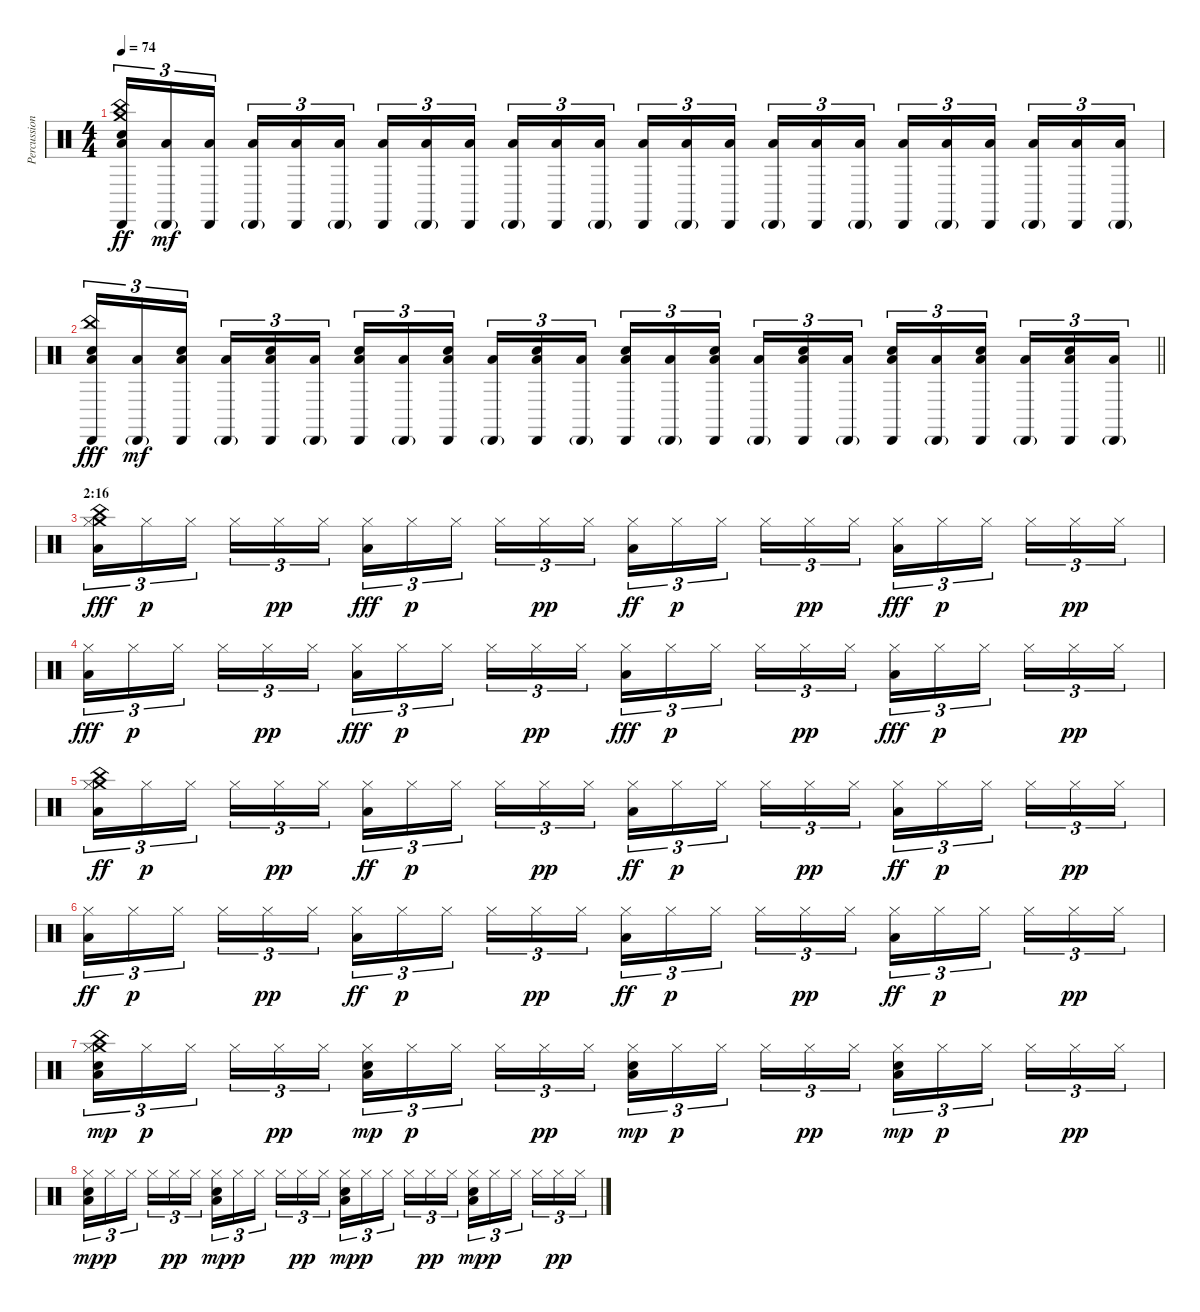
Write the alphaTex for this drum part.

\track ("Percussion" "Percussion") {instrument percussion}
\staff {score}
\articulation defaults
\ts (4 4)
\tempo 74
\clef neutral
\ks c
("China (hit)" "Cabasa (hit)" "Snare (hit) 2" "Low Floor Tom (hit)" "Crash medium (hit)").16{tu (3 2) dy ff} ("Cabasa (hit)"{g} "Low Floor Tom (hit)").16{tu (3 2) dy mf} ("Cabasa (hit)" "Low Floor Tom (hit)").16{tu (3 2)} ("Cabasa (hit)"{g} "Low Floor Tom (hit)").16{tu (3 2)} ("Cabasa (hit)" "Low Floor Tom (hit)").16{tu (3 2)} ("Cabasa (hit)"{g} "Low Floor Tom (hit)").16{tu (3 2)} ("Cabasa (hit)" "Low Floor Tom (hit)").16{tu (3 2)} ("Cabasa (hit)"{g} "Low Floor Tom (hit)").16{tu (3 2)} ("Cabasa (hit)" "Low Floor Tom (hit)").16{tu (3 2)} ("Cabasa (hit)"{g} "Low Floor Tom (hit)").16{tu (3 2)} ("Cabasa (hit)" "Low Floor Tom (hit)").16{tu (3 2)} ("Cabasa (hit)"{g} "Low Floor Tom (hit)").16{tu (3 2)} ("Cabasa (hit)" "Low Floor Tom (hit)").16{tu (3 2)} ("Cabasa (hit)"{g} "Low Floor Tom (hit)").16{tu (3 2)} ("Cabasa (hit)" "Low Floor Tom (hit)").16{tu (3 2)} ("Cabasa (hit)"{g} "Low Floor Tom (hit)").16{tu (3 2)} ("Cabasa (hit)" "Low Floor Tom (hit)").16{tu (3 2)} ("Cabasa (hit)"{g} "Low Floor Tom (hit)").16{tu (3 2)} ("Cabasa (hit)" "Low Floor Tom (hit)").16{tu (3 2)} ("Cabasa (hit)"{g} "Low Floor Tom (hit)").16{tu (3 2)} ("Cabasa (hit)" "Low Floor Tom (hit)").16{tu (3 2)} ("Cabasa (hit)"{g} "Low Floor Tom (hit)").16{tu (3 2)} ("Cabasa (hit)" "Low Floor Tom (hit)").16{tu (3 2)} ("Cabasa (hit)"{g} "Low Floor Tom (hit)").16{tu (3 2)} |
\barLineRight lightlight
("Cabasa (hit)" "China (hit)" "Snare (hit) 2" "Low Floor Tom (hit)").16{tu (3 2) dy fff} ("Cabasa (hit)"{g} "Low Floor Tom (hit)").16{tu (3 2) dy mf} ("Cabasa (hit)" "Snare (hit) 2" "Low Floor Tom (hit)").16{tu (3 2)} ("Cabasa (hit)"{g} "Low Floor Tom (hit)").16{tu (3 2)} ("Cabasa (hit)" "Snare (hit) 2" "Low Floor Tom (hit)").16{tu (3 2)} ("Cabasa (hit)"{g} "Low Floor Tom (hit)").16{tu (3 2)} ("Cabasa (hit)" "Snare (hit) 2" "Low Floor Tom (hit)").16{tu (3 2)} ("Cabasa (hit)"{g} "Low Floor Tom (hit)").16{tu (3 2)} ("Cabasa (hit)" "Snare (hit) 2" "Low Floor Tom (hit)").16{tu (3 2)} ("Cabasa (hit)"{g} "Low Floor Tom (hit)").16{tu (3 2)} ("Cabasa (hit)" "Snare (hit) 2" "Low Floor Tom (hit)").16{tu (3 2)} ("Cabasa (hit)"{g} "Low Floor Tom (hit)").16{tu (3 2)} ("Cabasa (hit)" "Snare (hit) 2" "Low Floor Tom (hit)").16{tu (3 2)} ("Cabasa (hit)"{g} "Low Floor Tom (hit)").16{tu (3 2)} ("Cabasa (hit)" "Snare (hit) 2" "Low Floor Tom (hit)").16{tu (3 2)} ("Cabasa (hit)"{g} "Low Floor Tom (hit)").16{tu (3 2)} ("Cabasa (hit)" "Snare (hit) 2" "Low Floor Tom (hit)").16{tu (3 2)} ("Cabasa (hit)"{g} "Low Floor Tom (hit)").16{tu (3 2)} ("Cabasa (hit)" "Snare (hit) 2" "Low Floor Tom (hit)").16{tu (3 2)} ("Cabasa (hit)"{g} "Low Floor Tom (hit)").16{tu (3 2)} ("Cabasa (hit)" "Snare (hit) 2" "Low Floor Tom (hit)").16{tu (3 2)} ("Cabasa (hit)"{g} "Low Floor Tom (hit)").16{tu (3 2)} ("Cabasa (hit)" "Snare (hit) 2" "Low Floor Tom (hit)").16{tu (3 2)} ("Cabasa (hit)"{g} "Low Floor Tom (hit)").16{tu (3 2)} |
\section ("" "2:16 ")
("Crash medium (hit)" "China (hit)" "Hi-Hat (closed)" "Low Floor Tom (hit)").16{tu (3 2) dy fff volume 16} "Hi-Hat (closed)".16{tu (3 2) dy p} "Hi-Hat (closed)".16{tu (3 2)} "Hi-Hat (closed)".16{tu (3 2)} "Hi-Hat (closed)".16{tu (3 2) dy pp} "Hi-Hat (closed)".16{tu (3 2)} ("Hi-Hat (closed)" "Low Floor Tom (hit)").16{tu (3 2) dy fff} "Hi-Hat (closed)".16{tu (3 2) dy p} "Hi-Hat (closed)".16{tu (3 2)} "Hi-Hat (closed)".16{tu (3 2)} "Hi-Hat (closed)".16{tu (3 2) dy pp} "Hi-Hat (closed)".16{tu (3 2)} ("Hi-Hat (closed)" "Low Floor Tom (hit)").16{tu (3 2) dy ff} "Hi-Hat (closed)".16{tu (3 2) dy p} "Hi-Hat (closed)".16{tu (3 2)} "Hi-Hat (closed)".16{tu (3 2)} "Hi-Hat (closed)".16{tu (3 2) dy pp} "Hi-Hat (closed)".16{tu (3 2)} ("Hi-Hat (closed)" "Low Floor Tom (hit)").16{tu (3 2) dy fff} "Hi-Hat (closed)".16{tu (3 2) dy p} "Hi-Hat (closed)".16{tu (3 2)} "Hi-Hat (closed)".16{tu (3 2)} "Hi-Hat (closed)".16{tu (3 2) dy pp} "Hi-Hat (closed)".16{tu (3 2)} |
("Hi-Hat (closed)" "Low Floor Tom (hit)").16{tu (3 2) dy fff} "Hi-Hat (closed)".16{tu (3 2) dy p} "Hi-Hat (closed)".16{tu (3 2)} "Hi-Hat (closed)".16{tu (3 2)} "Hi-Hat (closed)".16{tu (3 2) dy pp} "Hi-Hat (closed)".16{tu (3 2)} ("Hi-Hat (closed)" "Low Floor Tom (hit)").16{tu (3 2) dy fff} "Hi-Hat (closed)".16{tu (3 2) dy p} "Hi-Hat (closed)".16{tu (3 2)} "Hi-Hat (closed)".16{tu (3 2)} "Hi-Hat (closed)".16{tu (3 2) dy pp} "Hi-Hat (closed)".16{tu (3 2)} ("Hi-Hat (closed)" "Low Floor Tom (hit)").16{tu (3 2) dy fff} "Hi-Hat (closed)".16{tu (3 2) dy p} "Hi-Hat (closed)".16{tu (3 2)} "Hi-Hat (closed)".16{tu (3 2)} "Hi-Hat (closed)".16{tu (3 2) dy pp} "Hi-Hat (closed)".16{tu (3 2)} ("Hi-Hat (closed)" "Low Floor Tom (hit)").16{tu (3 2) dy fff} "Hi-Hat (closed)".16{tu (3 2) dy p} "Hi-Hat (closed)".16{tu (3 2)} "Hi-Hat (closed)".16{tu (3 2)} "Hi-Hat (closed)".16{tu (3 2) dy pp} "Hi-Hat (closed)".16{tu (3 2)} |
("Crash medium (hit)" "China (hit)" "Hi-Hat (closed)" "Low Floor Tom (hit)").16{tu (3 2) dy ff} "Hi-Hat (closed)".16{tu (3 2) dy p} "Hi-Hat (closed)".16{tu (3 2)} "Hi-Hat (closed)".16{tu (3 2)} "Hi-Hat (closed)".16{tu (3 2) dy pp} "Hi-Hat (closed)".16{tu (3 2)} ("Hi-Hat (closed)" "Low Floor Tom (hit)").16{tu (3 2) dy ff} "Hi-Hat (closed)".16{tu (3 2) dy p} "Hi-Hat (closed)".16{tu (3 2)} "Hi-Hat (closed)".16{tu (3 2)} "Hi-Hat (closed)".16{tu (3 2) dy pp} "Hi-Hat (closed)".16{tu (3 2)} ("Hi-Hat (closed)" "Low Floor Tom (hit)").16{tu (3 2) dy ff} "Hi-Hat (closed)".16{tu (3 2) dy p} "Hi-Hat (closed)".16{tu (3 2)} "Hi-Hat (closed)".16{tu (3 2)} "Hi-Hat (closed)".16{tu (3 2) dy pp} "Hi-Hat (closed)".16{tu (3 2)} ("Hi-Hat (closed)" "Low Floor Tom (hit)").16{tu (3 2) dy ff} "Hi-Hat (closed)".16{tu (3 2) dy p} "Hi-Hat (closed)".16{tu (3 2)} "Hi-Hat (closed)".16{tu (3 2)} "Hi-Hat (closed)".16{tu (3 2) dy pp} "Hi-Hat (closed)".16{tu (3 2)} |
("Hi-Hat (closed)" "Low Floor Tom (hit)").16{tu (3 2) dy ff} "Hi-Hat (closed)".16{tu (3 2) dy p} "Hi-Hat (closed)".16{tu (3 2)} "Hi-Hat (closed)".16{tu (3 2)} "Hi-Hat (closed)".16{tu (3 2) dy pp} "Hi-Hat (closed)".16{tu (3 2)} ("Hi-Hat (closed)" "Low Floor Tom (hit)").16{tu (3 2) dy ff} "Hi-Hat (closed)".16{tu (3 2) dy p} "Hi-Hat (closed)".16{tu (3 2)} "Hi-Hat (closed)".16{tu (3 2)} "Hi-Hat (closed)".16{tu (3 2) dy pp} "Hi-Hat (closed)".16{tu (3 2)} ("Hi-Hat (closed)" "Low Floor Tom (hit)").16{tu (3 2) dy ff} "Hi-Hat (closed)".16{tu (3 2) dy p} "Hi-Hat (closed)".16{tu (3 2)} "Hi-Hat (closed)".16{tu (3 2)} "Hi-Hat (closed)".16{tu (3 2) dy pp} "Hi-Hat (closed)".16{tu (3 2)} ("Hi-Hat (closed)" "Low Floor Tom (hit)").16{tu (3 2) dy ff} "Hi-Hat (closed)".16{tu (3 2) dy p} "Hi-Hat (closed)".16{tu (3 2)} "Hi-Hat (closed)".16{tu (3 2)} "Hi-Hat (closed)".16{tu (3 2) dy pp} "Hi-Hat (closed)".16{tu (3 2)} |
("Crash medium (hit)" "China (hit)" "Hi-Hat (closed)" "Low Floor Tom (hit)" "Snare (hit) 2").16{tu (3 2) dy mp} "Hi-Hat (closed)".16{tu (3 2) dy p} "Hi-Hat (closed)".16{tu (3 2)} "Hi-Hat (closed)".16{tu (3 2)} "Hi-Hat (closed)".16{tu (3 2) dy pp} "Hi-Hat (closed)".16{tu (3 2)} ("Hi-Hat (closed)" "Low Floor Tom (hit)" "Snare (hit) 2").16{tu (3 2) dy mp} "Hi-Hat (closed)".16{tu (3 2) dy p} "Hi-Hat (closed)".16{tu (3 2)} "Hi-Hat (closed)".16{tu (3 2)} "Hi-Hat (closed)".16{tu (3 2) dy pp} "Hi-Hat (closed)".16{tu (3 2)} ("Hi-Hat (closed)" "Low Floor Tom (hit)" "Snare (hit) 2").16{tu (3 2) dy mp} "Hi-Hat (closed)".16{tu (3 2) dy p} "Hi-Hat (closed)".16{tu (3 2)} "Hi-Hat (closed)".16{tu (3 2)} "Hi-Hat (closed)".16{tu (3 2) dy pp} "Hi-Hat (closed)".16{tu (3 2)} ("Hi-Hat (closed)" "Low Floor Tom (hit)" "Snare (hit) 2").16{tu (3 2) dy mp} "Hi-Hat (closed)".16{tu (3 2) dy p} "Hi-Hat (closed)".16{tu (3 2)} "Hi-Hat (closed)".16{tu (3 2)} "Hi-Hat (closed)".16{tu (3 2) dy pp} "Hi-Hat (closed)".16{tu (3 2)} |
("Hi-Hat (closed)" "Low Floor Tom (hit)" "Snare (hit) 2").16{tu (3 2) dy mp} "Hi-Hat (closed)".16{tu (3 2) dy p} "Hi-Hat (closed)".16{tu (3 2)} "Hi-Hat (closed)".16{tu (3 2)} "Hi-Hat (closed)".16{tu (3 2) dy pp} "Hi-Hat (closed)".16{tu (3 2)} ("Hi-Hat (closed)" "Low Floor Tom (hit)" "Snare (hit) 2").16{tu (3 2) dy mp} "Hi-Hat (closed)".16{tu (3 2) dy p} "Hi-Hat (closed)".16{tu (3 2)} "Hi-Hat (closed)".16{tu (3 2)} "Hi-Hat (closed)".16{tu (3 2) dy pp} "Hi-Hat (closed)".16{tu (3 2)} ("Hi-Hat (closed)" "Low Floor Tom (hit)" "Snare (hit) 2").16{tu (3 2) dy mp} "Hi-Hat (closed)".16{tu (3 2) dy p} "Hi-Hat (closed)".16{tu (3 2)} "Hi-Hat (closed)".16{tu (3 2)} "Hi-Hat (closed)".16{tu (3 2) dy pp} "Hi-Hat (closed)".16{tu (3 2)} ("Hi-Hat (closed)" "Low Floor Tom (hit)" "Snare (hit) 2").16{tu (3 2) dy mp} "Hi-Hat (closed)".16{tu (3 2) dy p} "Hi-Hat (closed)".16{tu (3 2)} "Hi-Hat (closed)".16{tu (3 2)} "Hi-Hat (closed)".16{tu (3 2) dy pp} "Hi-Hat (closed)".16{tu (3 2)}
